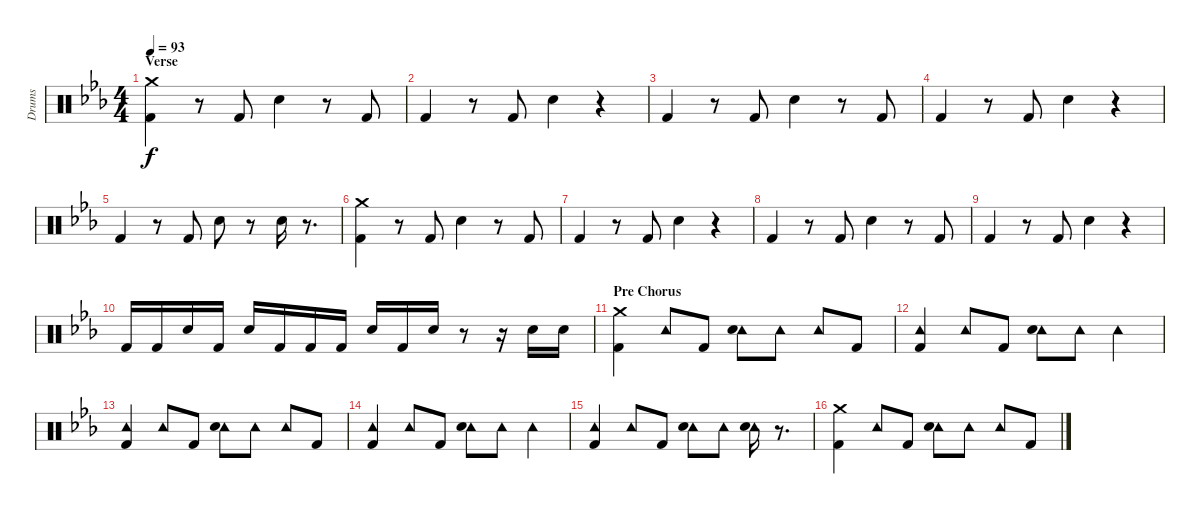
\track ("Drums" "Drums") {instrument percussion}
\staff {score}
\articulation defaults
\ts (4 4)
\section ("" "Verse")
\tempo 93
\clef neutral
\ks eb
("Crash medium (hit)" "Kick (hit) 2").4{dy f} r.8 "Kick (hit) 2".8 "Snare (hit) 2".4 r.8 "Kick (hit) 2".8 |
"Kick (hit) 2".4 r.8 "Kick (hit) 2".8 "Snare (hit) 2".4 r.4 |
"Kick (hit) 2".4 r.8 "Kick (hit) 2".8 "Snare (hit) 2".4 r.8 "Kick (hit) 2".8 |
"Kick (hit) 2".4 r.8 "Kick (hit) 2".8 "Snare (hit) 2".4 r.4 |
"Kick (hit) 2".4 r.8 "Kick (hit) 2".8 "Snare (hit) 2".8 r.8 "Snare (hit) 2".16 r.8{d} |
("Crash medium (hit)" "Kick (hit) 2").4 r.8 "Kick (hit) 2".8 "Snare (hit) 2".4 r.8 "Kick (hit) 2".8 |
"Kick (hit) 2".4 r.8 "Kick (hit) 2".8 "Snare (hit) 2".4 r.4 |
"Kick (hit) 2".4 r.8 "Kick (hit) 2".8 "Snare (hit) 2".4 r.8 "Kick (hit) 2".8 |
"Kick (hit) 2".4 r.8 "Kick (hit) 2".8 "Snare (hit) 2".4 r.4 |
"Kick (hit) 2".16 "Kick (hit) 2".16 "Snare (hit) 2".16 "Kick (hit) 2".16 "Snare (hit) 2".16 "Kick (hit) 2".16 "Kick (hit) 2".16 "Kick (hit) 2".16 "Snare (hit) 2".16 "Kick (hit) 2".16 "Snare (hit) 2".16 r.8 r.16 "Snare (hit) 2".16 "Snare (hit) 2".16 |
\section ("" "Pre Chorus")
("Crash medium (hit)" "Kick (hit) 2").4 "Tambourine (hit)".8 "Kick (hit) 2".8 ("Tambourine (hit)" "Snare (hit) 2").8 "Tambourine (hit)".8 "Tambourine (hit)".8 "Kick (hit) 2".8 |
("Tambourine (hit)" "Kick (hit) 2").4 "Tambourine (hit)".8 "Kick (hit) 2".8 ("Tambourine (hit)" "Snare (hit) 2").8 "Tambourine (hit)".8 "Tambourine (hit)".4 |
("Tambourine (hit)" "Kick (hit) 2").4 "Tambourine (hit)".8 "Kick (hit) 2".8 ("Tambourine (hit)" "Snare (hit) 2").8 "Tambourine (hit)".8 "Tambourine (hit)".8 "Kick (hit) 2".8 |
("Tambourine (hit)" "Kick (hit) 2").4 "Tambourine (hit)".8 "Kick (hit) 2".8 ("Tambourine (hit)" "Snare (hit) 2").8 "Tambourine (hit)".8 "Tambourine (hit)".4 |
("Tambourine (hit)" "Kick (hit) 2").4 "Tambourine (hit)".8 "Kick (hit) 2".8 ("Tambourine (hit)" "Snare (hit) 2").8 "Tambourine (hit)".8 ("Tambourine (hit)" "Snare (hit) 2").16 r.8{d} |
("Crash medium (hit)" "Kick (hit) 2").4 "Tambourine (hit)".8 "Kick (hit) 2".8 ("Tambourine (hit)" "Snare (hit) 2").8 "Tambourine (hit)".8 "Tambourine (hit)".8 "Kick (hit) 2".8
